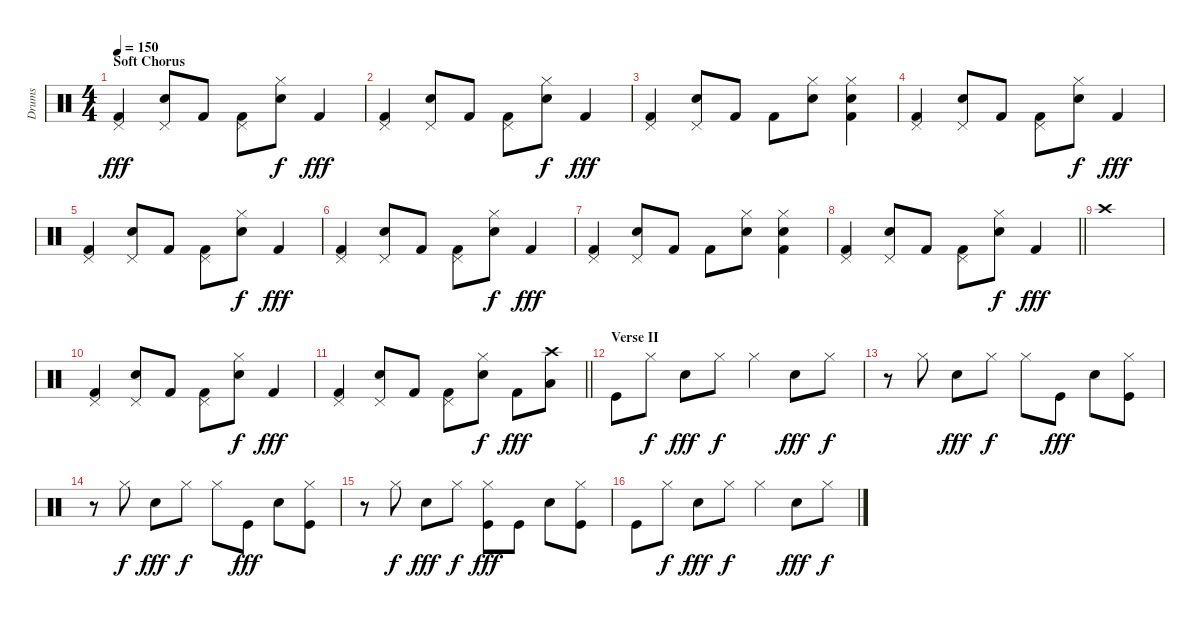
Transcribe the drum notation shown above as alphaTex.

\track ("Drums" "Drums") {instrument percussion}
\staff {score}
\articulation defaults
\ts (4 4)
\section ("" "Soft Chorus")
\tempo 150
\clef neutral
\ks c
("Pedal Hi-Hat (hit)" "Kick (hit) 2").4{dy fff} ("Pedal Hi-Hat (hit)" "Electric Snare (hit)").8 "Kick (hit) 2".8 ("Pedal Hi-Hat (hit)" "Kick (hit) 2").8 ("Hi-Hat (closed)" "Electric Snare (hit)").8{dy f} "Kick (hit) 2".4{dy fff} |
("Pedal Hi-Hat (hit)" "Kick (hit) 2").4 ("Pedal Hi-Hat (hit)" "Electric Snare (hit)").8 "Kick (hit) 2".8 ("Pedal Hi-Hat (hit)" "Kick (hit) 2").8 ("Hi-Hat (closed)" "Electric Snare (hit)").8{dy f} "Kick (hit) 2".4{dy fff} |
("Pedal Hi-Hat (hit)" "Kick (hit) 2").4 ("Pedal Hi-Hat (hit)" "Electric Snare (hit)").8 "Kick (hit) 2".8 "Kick (hit) 2".8 ("Hi-Hat (closed)" "Electric Snare (hit)").8 ("Hi-Hat (closed)" "Electric Snare (hit)" "Kick (hit) 2").4 |
("Pedal Hi-Hat (hit)" "Kick (hit) 2").4 ("Pedal Hi-Hat (hit)" "Electric Snare (hit)").8 "Kick (hit) 2".8 ("Pedal Hi-Hat (hit)" "Kick (hit) 2").8 ("Hi-Hat (closed)" "Electric Snare (hit)").8{dy f} "Kick (hit) 2".4{dy fff} |
("Pedal Hi-Hat (hit)" "Kick (hit) 2").4 ("Pedal Hi-Hat (hit)" "Electric Snare (hit)").8 "Kick (hit) 2".8 ("Pedal Hi-Hat (hit)" "Kick (hit) 2").8 ("Hi-Hat (closed)" "Electric Snare (hit)").8{dy f} "Kick (hit) 2".4{dy fff} |
("Pedal Hi-Hat (hit)" "Kick (hit) 2").4 ("Pedal Hi-Hat (hit)" "Electric Snare (hit)").8 "Kick (hit) 2".8 ("Pedal Hi-Hat (hit)" "Kick (hit) 2").8 ("Hi-Hat (closed)" "Electric Snare (hit)").8{dy f} "Kick (hit) 2".4{dy fff} |
("Pedal Hi-Hat (hit)" "Kick (hit) 2").4 ("Pedal Hi-Hat (hit)" "Electric Snare (hit)").8 "Kick (hit) 2".8 "Kick (hit) 2".8 ("Hi-Hat (closed)" "Electric Snare (hit)").8 ("Hi-Hat (closed)" "Electric Snare (hit)" "Kick (hit) 2").4 |
\barLineRight lightlight
("Pedal Hi-Hat (hit)" "Kick (hit) 2").4 ("Pedal Hi-Hat (hit)" "Electric Snare (hit)").8 "Kick (hit) 2".8 ("Pedal Hi-Hat (hit)" "Kick (hit) 2").8 ("Hi-Hat (closed)" "Electric Snare (hit)").8{dy f} "Kick (hit) 2".4{dy fff} |
\section ("" "")
"Crash high (hit)".1 |
("Pedal Hi-Hat (hit)" "Kick (hit) 2").4 ("Pedal Hi-Hat (hit)" "Electric Snare (hit)").8 "Kick (hit) 2".8 ("Pedal Hi-Hat (hit)" "Kick (hit) 2").8 ("Hi-Hat (closed)" "Electric Snare (hit)").8{dy f} "Kick (hit) 2".4{dy fff} |
\barLineRight lightlight
("Pedal Hi-Hat (hit)" "Kick (hit) 2").4 ("Pedal Hi-Hat (hit)" "Electric Snare (hit)").8 "Kick (hit) 2".8 ("Pedal Hi-Hat (hit)" "Kick (hit) 2").8 ("Hi-Hat (closed)" "Electric Snare (hit)").8{dy f} "Kick (hit) 2".8{dy fff} ("Crash high (hit)" "Low Floor Tom (hit)").8 |
\section ("" "Verse II")
"Kick (hit)".8 "Hi-Hat (closed)".8{dy f} "Snare (hit) 2".8{dy fff} "Hi-Hat (closed)".8{dy f} "Hi-Hat (closed)".4 "Snare (hit) 2".8{dy fff} "Hi-Hat (closed)".8{dy f} |
r.8 "Hi-Hat (closed)".8 "Snare (hit) 2".8{dy fff} "Hi-Hat (closed)".8{dy f} "Hi-Hat (closed)".8 "Kick (hit)".8{dy fff} "Snare (hit) 2".8 ("Hi-Hat (closed)" "Kick (hit)").8 |
r.8 "Hi-Hat (closed)".8{dy f} "Snare (hit) 2".8{dy fff} "Hi-Hat (closed)".8{dy f} "Hi-Hat (closed)".8 "Kick (hit)".8{dy fff} "Snare (hit) 2".8 ("Hi-Hat (closed)" "Kick (hit)").8 |
r.8 "Hi-Hat (closed)".8{dy f} "Snare (hit) 2".8{dy fff} "Hi-Hat (closed)".8{dy f} ("Hi-Hat (closed)" "Kick (hit)").8{dy fff} "Kick (hit)".8 "Snare (hit) 2".8 ("Hi-Hat (closed)" "Kick (hit)").8 |
"Kick (hit)".8 "Hi-Hat (closed)".8{dy f} "Snare (hit) 2".8{dy fff} "Hi-Hat (closed)".8{dy f} "Hi-Hat (closed)".4 "Snare (hit) 2".8{dy fff} "Hi-Hat (closed)".8{dy f}
